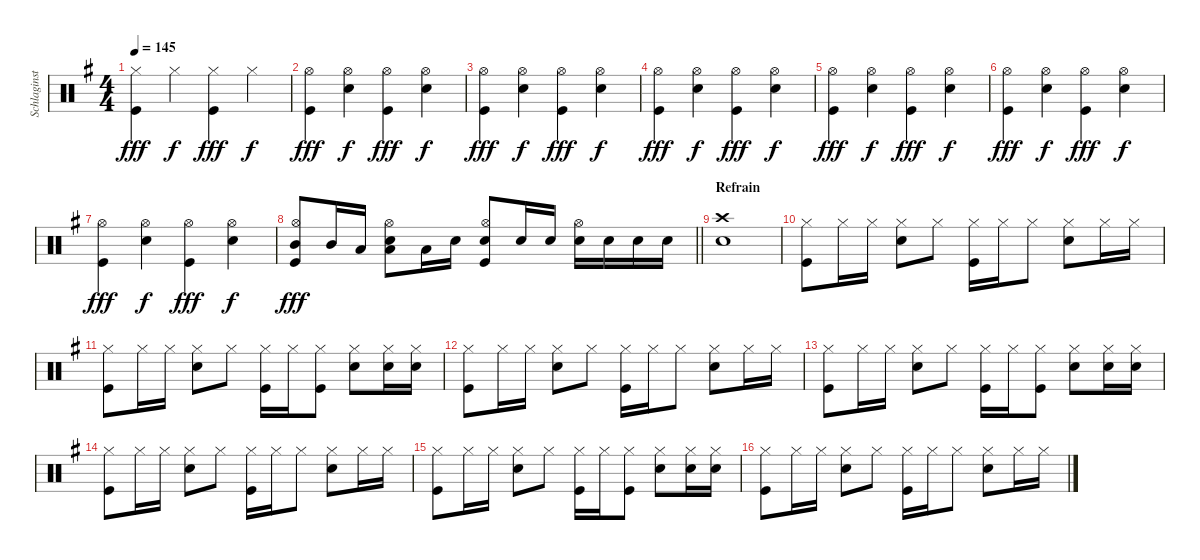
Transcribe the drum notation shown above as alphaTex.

\track ("Schlaginstrumente - Auswahl" "Schlaginst") {instrument percussion}
\staff {score}
\articulation defaults
\ts (4 4)
\tempo 145
\clef neutral
\ks eminor
("Hi-Hat (closed)" "Kick (hit)").4{dy fff} "Hi-Hat (closed)".4{dy f} ("Hi-Hat (closed)" "Kick (hit)").4{dy fff} "Hi-Hat (closed)".4{dy f} |
("Hi-Hat (open)" "Kick (hit)").4{dy fff} ("Hi-Hat (open)" "Snare (hit) 2").4{dy f} ("Hi-Hat (open)" "Kick (hit)").4{dy fff} ("Hi-Hat (open)" "Snare (hit) 2").4{dy f} |
("Hi-Hat (open)" "Kick (hit)").4{dy fff} ("Hi-Hat (open)" "Snare (hit) 2").4{dy f} ("Hi-Hat (open)" "Kick (hit)").4{dy fff} ("Hi-Hat (open)" "Snare (hit) 2").4{dy f} |
("Hi-Hat (open)" "Kick (hit)").4{dy fff} ("Hi-Hat (open)" "Snare (hit) 2").4{dy f} ("Hi-Hat (open)" "Kick (hit)").4{dy fff} ("Hi-Hat (open)" "Snare (hit) 2").4{dy f} |
("Hi-Hat (open)" "Kick (hit)").4{dy fff} ("Hi-Hat (open)" "Snare (hit) 2").4{dy f} ("Hi-Hat (open)" "Kick (hit)").4{dy fff} ("Hi-Hat (open)" "Snare (hit) 2").4{dy f} |
("Hi-Hat (open)" "Kick (hit)").4{dy fff} ("Hi-Hat (open)" "Snare (hit) 2").4{dy f} ("Hi-Hat (open)" "Kick (hit)").4{dy fff} ("Hi-Hat (open)" "Snare (hit) 2").4{dy f} |
("Hi-Hat (open)" "Kick (hit)").4{dy fff} ("Hi-Hat (open)" "Snare (hit) 2").4{dy f} ("Hi-Hat (open)" "Kick (hit)").4{dy fff} ("Hi-Hat (open)" "Snare (hit) 2").4{dy f} |
\barLineRight lightlight
("Hi-Hat (open)" "Mid Tom (hit)" "Kick (hit)").8{dy fff} "Mid Tom (hit)".16 "Low Tom (hit)".16 ("Hi-Hat (open)" "Low Tom (hit)" "Snare (hit) 2").8 "Low Tom (hit)".16 "Snare (hit) 2".16 ("Hi-Hat (open)" "Snare (hit) 2" "Kick (hit)").8 "Snare (hit) 2".16 "Snare (hit) 2".16 ("Hi-Hat (open)" "Snare (hit) 2").16 "Snare (hit) 2".16 "Snare (hit) 2".16 "Snare (hit) 2".16 |
\section ("" "Refrain")
("Crash high (hit)" "Snare (hit) 2").1 |
("Hi-Hat (closed)" "Kick (hit)").8 "Hi-Hat (closed)".16 "Hi-Hat (closed)".16 ("Hi-Hat (closed)" "Snare (hit) 2").8 "Hi-Hat (closed)".8 ("Hi-Hat (closed)" "Kick (hit)").16 "Hi-Hat (closed)".16 "Hi-Hat (closed)".8 ("Hi-Hat (closed)" "Snare (hit) 2").8 "Hi-Hat (closed)".16 "Hi-Hat (closed)".16 |
("Hi-Hat (closed)" "Kick (hit)").8 "Hi-Hat (closed)".16 "Hi-Hat (closed)".16 ("Hi-Hat (closed)" "Snare (hit) 2").8 "Hi-Hat (closed)".8 ("Hi-Hat (closed)" "Kick (hit)").16 "Hi-Hat (closed)".16 ("Hi-Hat (closed)" "Kick (hit)").8 ("Hi-Hat (closed)" "Snare (hit) 2").8 ("Hi-Hat (closed)" "Snare (hit) 2").16 ("Hi-Hat (closed)" "Snare (hit) 2").16 |
("Hi-Hat (closed)" "Kick (hit)").8 "Hi-Hat (closed)".16 "Hi-Hat (closed)".16 ("Hi-Hat (closed)" "Snare (hit) 2").8 "Hi-Hat (closed)".8 ("Hi-Hat (closed)" "Kick (hit)").16 "Hi-Hat (closed)".16 "Hi-Hat (closed)".8 ("Hi-Hat (closed)" "Snare (hit) 2").8 "Hi-Hat (closed)".16 "Hi-Hat (closed)".16 |
("Hi-Hat (closed)" "Kick (hit)").8 "Hi-Hat (closed)".16 "Hi-Hat (closed)".16 ("Hi-Hat (closed)" "Snare (hit) 2").8 "Hi-Hat (closed)".8 ("Hi-Hat (closed)" "Kick (hit)").16 "Hi-Hat (closed)".16 ("Hi-Hat (closed)" "Kick (hit)").8 ("Hi-Hat (closed)" "Snare (hit) 2").8 ("Hi-Hat (closed)" "Snare (hit) 2").16 ("Hi-Hat (closed)" "Snare (hit) 2").16 |
("Hi-Hat (closed)" "Kick (hit)").8 "Hi-Hat (closed)".16 "Hi-Hat (closed)".16 ("Hi-Hat (closed)" "Snare (hit) 2").8 "Hi-Hat (closed)".8 ("Hi-Hat (closed)" "Kick (hit)").16 "Hi-Hat (closed)".16 "Hi-Hat (closed)".8 ("Hi-Hat (closed)" "Snare (hit) 2").8 "Hi-Hat (closed)".16 "Hi-Hat (closed)".16 |
("Hi-Hat (closed)" "Kick (hit)").8 "Hi-Hat (closed)".16 "Hi-Hat (closed)".16 ("Hi-Hat (closed)" "Snare (hit) 2").8 "Hi-Hat (closed)".8 ("Hi-Hat (closed)" "Kick (hit)").16 "Hi-Hat (closed)".16 ("Hi-Hat (closed)" "Kick (hit)").8 ("Hi-Hat (closed)" "Snare (hit) 2").8 ("Hi-Hat (closed)" "Snare (hit) 2").16 ("Hi-Hat (closed)" "Snare (hit) 2").16 |
("Hi-Hat (closed)" "Kick (hit)").8 "Hi-Hat (closed)".16 "Hi-Hat (closed)".16 ("Hi-Hat (closed)" "Snare (hit) 2").8 "Hi-Hat (closed)".8 ("Hi-Hat (closed)" "Kick (hit)").16 "Hi-Hat (closed)".16 "Hi-Hat (closed)".8 ("Hi-Hat (closed)" "Snare (hit) 2").8 "Hi-Hat (closed)".16 "Hi-Hat (closed)".16
